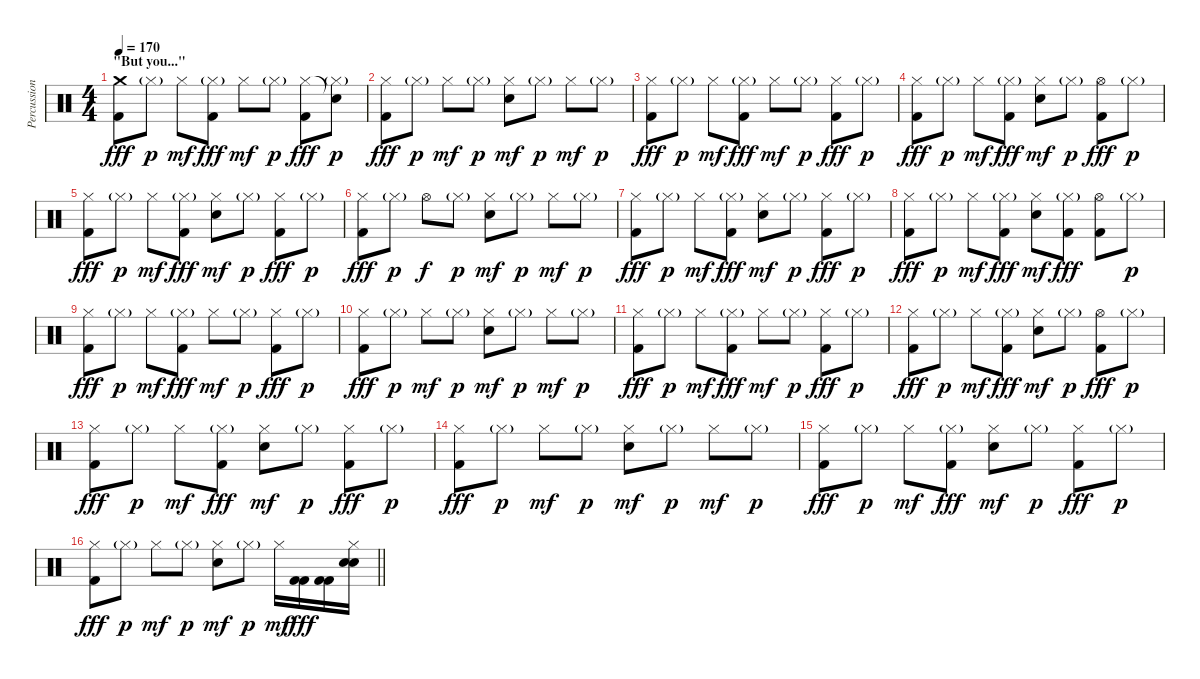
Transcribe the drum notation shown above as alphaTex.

\track ("Percussion" "Percussion") {instrument percussion}
\staff {score}
\articulation defaults
\ts (4 4)
\section ("" "\"But you...\"")
\tempo 170
\clef neutral
\ks c
("Crash medium (hit)" "Kick (hit) 2").8{dy fff} "Hi-Hat (closed)"{g}.8{dy p} "Hi-Hat (closed)".8{dy mf} ("Hi-Hat (closed)"{g} "Kick (hit) 2").8{dy fff} "Hi-Hat (closed)".8{dy mf} "Hi-Hat (closed)"{g}.8{dy p} ("Hi-Hat (closed)" "Kick (hit) 2").8{dy fff} ("Snare (hit)"{t} "Hi-Hat (closed)"{g}).8{dy p} |
("Hi-Hat (closed)" "Kick (hit) 2").8{dy fff} "Hi-Hat (closed)"{g}.8{dy p} "Hi-Hat (closed)".8{dy mf} "Hi-Hat (closed)"{g}.8{dy p} ("Hi-Hat (closed)" "Electric Snare (hit)").8{dy mf} "Hi-Hat (closed)"{g}.8{dy p} "Hi-Hat (closed)".8{dy mf} "Hi-Hat (closed)"{g}.8{dy p} |
("Hi-Hat (closed)" "Kick (hit) 2").8{dy fff} "Hi-Hat (closed)"{g}.8{dy p} "Hi-Hat (closed)".8{dy mf} ("Hi-Hat (closed)"{g} "Kick (hit) 2").8{dy fff} "Hi-Hat (closed)".8{dy mf} "Hi-Hat (closed)"{g}.8{dy p} ("Hi-Hat (closed)" "Kick (hit) 2").8{dy fff} "Hi-Hat (closed)"{g}.8{dy p} |
("Hi-Hat (closed)" "Kick (hit) 2").8{dy fff} "Hi-Hat (closed)"{g}.8{dy p} "Hi-Hat (closed)".8{dy mf} ("Hi-Hat (closed)"{g} "Kick (hit) 2").8{dy fff} ("Hi-Hat (closed)" "Electric Snare (hit)").8{dy mf} "Hi-Hat (closed)"{g}.8{dy p} ("Hi-Hat (open)" "Kick (hit) 2").8{dy fff} "Hi-Hat (closed)"{g}.8{dy p} |
("Hi-Hat (closed)" "Kick (hit) 2").8{dy fff} "Hi-Hat (closed)"{g}.8{dy p} "Hi-Hat (closed)".8{dy mf} ("Hi-Hat (closed)"{g} "Kick (hit) 2").8{dy fff} ("Hi-Hat (closed)" "Electric Snare (hit)").8{dy mf} "Hi-Hat (closed)"{g}.8{dy p} ("Hi-Hat (closed)" "Kick (hit) 2").8{dy fff} "Hi-Hat (closed)"{g}.8{dy p} |
("Hi-Hat (closed)" "Kick (hit) 2").8{dy fff} "Hi-Hat (closed)"{g}.8{dy p} "Hi-Hat (open)".8{dy f} "Hi-Hat (closed)"{g}.8{dy p} ("Hi-Hat (closed)" "Electric Snare (hit)").8{dy mf} "Hi-Hat (closed)"{g}.8{dy p} "Hi-Hat (closed)".8{dy mf} "Hi-Hat (closed)"{g}.8{dy p} |
("Hi-Hat (closed)" "Kick (hit) 2").8{dy fff} "Hi-Hat (closed)"{g}.8{dy p} "Hi-Hat (closed)".8{dy mf} ("Hi-Hat (closed)"{g} "Kick (hit) 2").8{dy fff} ("Hi-Hat (closed)" "Electric Snare (hit)").8{dy mf} "Hi-Hat (closed)"{g}.8{dy p} ("Hi-Hat (closed)" "Kick (hit) 2").8{dy fff} "Hi-Hat (closed)"{g}.8{dy p} |
("Hi-Hat (closed)" "Kick (hit) 2").8{dy fff} "Hi-Hat (closed)"{g}.8{dy p} "Hi-Hat (closed)".8{dy mf} ("Hi-Hat (closed)"{g} "Kick (hit) 2").8{dy fff} ("Hi-Hat (closed)" "Electric Snare (hit)").8{dy mf} ("Hi-Hat (closed)"{g} "Kick (hit) 2").8{dy fff} ("Hi-Hat (open)" "Kick (hit) 2").8 "Hi-Hat (closed)"{g}.8{dy p} |
("Hi-Hat (closed)" "Kick (hit) 2").8{dy fff} "Hi-Hat (closed)"{g}.8{dy p} "Hi-Hat (closed)".8{dy mf} ("Hi-Hat (closed)"{g} "Kick (hit) 2").8{dy fff} "Hi-Hat (closed)".8{dy mf} "Hi-Hat (closed)"{g}.8{dy p} ("Hi-Hat (closed)" "Kick (hit) 2").8{dy fff} "Hi-Hat (closed)"{g}.8{dy p} |
("Hi-Hat (closed)" "Kick (hit) 2").8{dy fff} "Hi-Hat (closed)"{g}.8{dy p} "Hi-Hat (closed)".8{dy mf} "Hi-Hat (closed)"{g}.8{dy p} ("Hi-Hat (closed)" "Electric Snare (hit)").8{dy mf} "Hi-Hat (closed)"{g}.8{dy p} "Hi-Hat (closed)".8{dy mf} "Hi-Hat (closed)"{g}.8{dy p} |
("Hi-Hat (closed)" "Kick (hit) 2").8{dy fff} "Hi-Hat (closed)"{g}.8{dy p} "Hi-Hat (closed)".8{dy mf} ("Hi-Hat (closed)"{g} "Kick (hit) 2").8{dy fff} "Hi-Hat (closed)".8{dy mf} "Hi-Hat (closed)"{g}.8{dy p} ("Hi-Hat (closed)" "Kick (hit) 2").8{dy fff} "Hi-Hat (closed)"{g}.8{dy p} |
("Hi-Hat (closed)" "Kick (hit) 2").8{dy fff} "Hi-Hat (closed)"{g}.8{dy p} "Hi-Hat (closed)".8{dy mf} ("Hi-Hat (closed)"{g} "Kick (hit) 2").8{dy fff} ("Hi-Hat (closed)" "Electric Snare (hit)").8{dy mf} "Hi-Hat (closed)"{g}.8{dy p} ("Hi-Hat (open)" "Kick (hit) 2").8{dy fff} "Hi-Hat (closed)"{g}.8{dy p} |
("Hi-Hat (closed)" "Kick (hit) 2").8{dy fff} "Hi-Hat (closed)"{g}.8{dy p} "Hi-Hat (closed)".8{dy mf} ("Hi-Hat (closed)"{g} "Kick (hit) 2").8{dy fff} ("Hi-Hat (closed)" "Electric Snare (hit)").8{dy mf} "Hi-Hat (closed)"{g}.8{dy p} ("Hi-Hat (closed)" "Kick (hit) 2").8{dy fff} "Hi-Hat (closed)"{g}.8{dy p} |
("Hi-Hat (closed)" "Kick (hit) 2").8{dy fff} "Hi-Hat (closed)"{g}.8{dy p} "Hi-Hat (closed)".8{dy mf} "Hi-Hat (closed)"{g}.8{dy p} ("Hi-Hat (closed)" "Electric Snare (hit)").8{dy mf} "Hi-Hat (closed)"{g}.8{dy p} "Hi-Hat (closed)".8{dy mf} "Hi-Hat (closed)"{g}.8{dy p} |
("Hi-Hat (closed)" "Kick (hit) 2").8{dy fff} "Hi-Hat (closed)"{g}.8{dy p} "Hi-Hat (closed)".8{dy mf} ("Hi-Hat (closed)"{g} "Kick (hit) 2").8{dy fff} ("Hi-Hat (closed)" "Electric Snare (hit)").8{dy mf} "Hi-Hat (closed)"{g}.8{dy p} ("Hi-Hat (closed)" "Kick (hit) 2").8{dy fff} "Hi-Hat (closed)"{g}.8{dy p} |
\barLineRight lightlight
("Hi-Hat (closed)" "Kick (hit) 2").8{dy fff} "Hi-Hat (closed)"{g}.8{dy p} "Hi-Hat (closed)".8{dy mf} "Hi-Hat (closed)"{g}.8{dy p} ("Hi-Hat (closed)" "Electric Snare (hit)").8{dy mf} "Hi-Hat (closed)"{g}.8{dy p} "Hi-Hat (closed)".16{dy mf} ("Kick (hit) 2" "Kick (hit) 2").16{dy fff} ("Kick (hit) 2" "Kick (hit) 2").16 ("Hi-Hat (closed)" "Electric Snare (hit)" "Electric Snare (hit)").16
